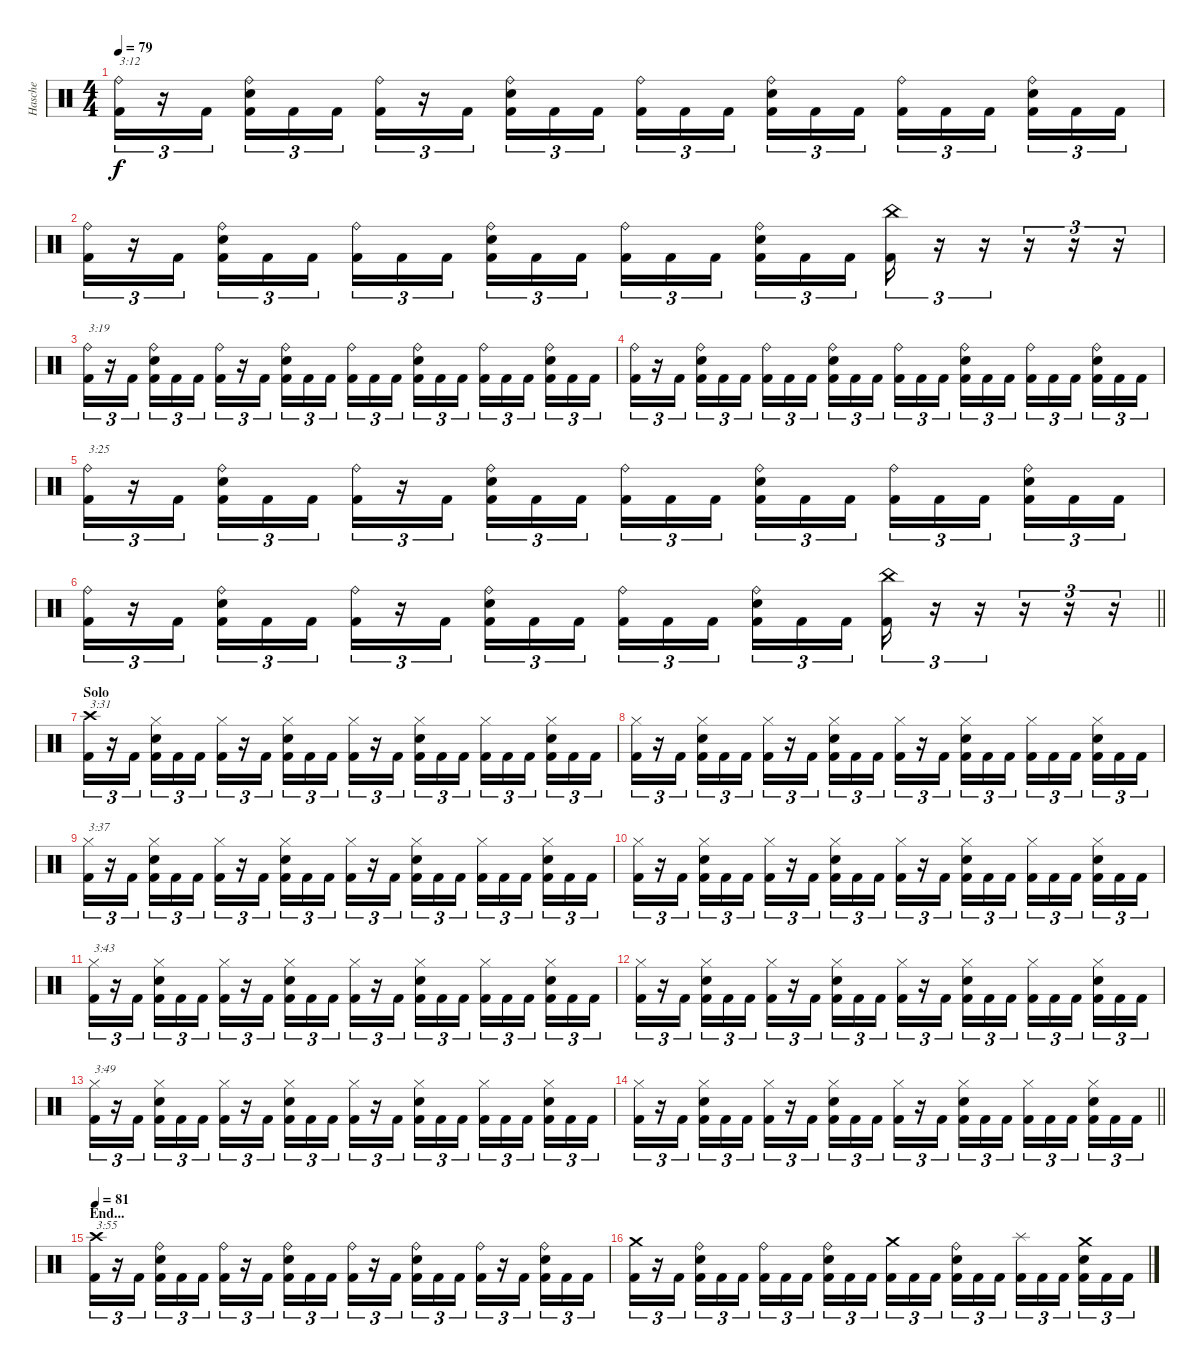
\track ("Hasche" "Hasche") {instrument percussion}
\staff {score}
\articulation defaults
\ts (4 4)
\tempo 79
\clef neutral
\ks c
("Ride (bell)" "Kick (hit) 2").16{tu (3 2) txt "3:12" dy f} r.16{tu (3 2)} "Kick (hit) 2".16{tu (3 2) beam splitsecondary} ("Ride (bell)" "Snare (hit) 2" "Kick (hit) 2").16{tu (3 2)} "Kick (hit) 2".16{tu (3 2)} "Kick (hit) 2".16{tu (3 2)} ("Ride (bell)" "Kick (hit) 2").16{tu (3 2)} r.16{tu (3 2)} "Kick (hit) 2".16{tu (3 2) beam splitsecondary} ("Ride (bell)" "Snare (hit) 2" "Kick (hit) 2").16{tu (3 2)} "Kick (hit) 2".16{tu (3 2)} "Kick (hit) 2".16{tu (3 2)} ("Ride (bell)" "Kick (hit) 2").16{tu (3 2)} "Kick (hit) 2".16{tu (3 2)} "Kick (hit) 2".16{tu (3 2) beam splitsecondary} ("Ride (bell)" "Snare (hit) 2" "Kick (hit) 2").16{tu (3 2)} "Kick (hit) 2".16{tu (3 2)} "Kick (hit) 2".16{tu (3 2)} ("Ride (bell)" "Kick (hit) 2").16{tu (3 2)} "Kick (hit) 2".16{tu (3 2)} "Kick (hit) 2".16{tu (3 2) beam splitsecondary} ("Ride (bell)" "Snare (hit) 2" "Kick (hit) 2").16{tu (3 2)} "Kick (hit) 2".16{tu (3 2)} "Kick (hit) 2".16{tu (3 2)} |
("Ride (bell)" "Kick (hit) 2").16{tu (3 2)} r.16{tu (3 2)} "Kick (hit) 2".16{tu (3 2) beam splitsecondary} ("Ride (bell)" "Snare (hit) 2" "Kick (hit) 2").16{tu (3 2)} "Kick (hit) 2".16{tu (3 2)} "Kick (hit) 2".16{tu (3 2)} ("Ride (bell)" "Kick (hit) 2").16{tu (3 2)} "Kick (hit) 2".16{tu (3 2)} "Kick (hit) 2".16{tu (3 2) beam splitsecondary} ("Ride (bell)" "Snare (hit) 2" "Kick (hit) 2").16{tu (3 2)} "Kick (hit) 2".16{tu (3 2)} "Kick (hit) 2".16{tu (3 2)} ("Ride (bell)" "Kick (hit) 2").16{tu (3 2)} "Kick (hit) 2".16{tu (3 2)} "Kick (hit) 2".16{tu (3 2) beam splitsecondary} ("Ride (bell)" "Snare (hit) 2" "Kick (hit) 2").16{tu (3 2)} "Kick (hit) 2".16{tu (3 2)} "Kick (hit) 2".16{tu (3 2)} ("China (hit)" "Kick (hit) 2").16{tu (3 2)} r.16{tu (3 2)} r.16{tu (3 2)} r.16{tu (3 2)} r.16{tu (3 2)} r.16{tu (3 2)} |
("Ride (bell)" "Kick (hit) 2").16{tu (3 2) txt "3:19"} r.16{tu (3 2)} "Kick (hit) 2".16{tu (3 2) beam splitsecondary} ("Ride (bell)" "Snare (hit) 2" "Kick (hit) 2").16{tu (3 2)} "Kick (hit) 2".16{tu (3 2)} "Kick (hit) 2".16{tu (3 2)} ("Ride (bell)" "Kick (hit) 2").16{tu (3 2)} r.16{tu (3 2)} "Kick (hit) 2".16{tu (3 2) beam splitsecondary} ("Ride (bell)" "Snare (hit) 2" "Kick (hit) 2").16{tu (3 2)} "Kick (hit) 2".16{tu (3 2)} "Kick (hit) 2".16{tu (3 2)} ("Ride (bell)" "Kick (hit) 2").16{tu (3 2)} "Kick (hit) 2".16{tu (3 2)} "Kick (hit) 2".16{tu (3 2) beam splitsecondary} ("Ride (bell)" "Snare (hit) 2" "Kick (hit) 2").16{tu (3 2)} "Kick (hit) 2".16{tu (3 2)} "Kick (hit) 2".16{tu (3 2)} ("Ride (bell)" "Kick (hit) 2").16{tu (3 2)} "Kick (hit) 2".16{tu (3 2)} "Kick (hit) 2".16{tu (3 2) beam splitsecondary} ("Ride (bell)" "Snare (hit) 2" "Kick (hit) 2").16{tu (3 2)} "Kick (hit) 2".16{tu (3 2)} "Kick (hit) 2".16{tu (3 2)} |
("Ride (bell)" "Kick (hit) 2").16{tu (3 2)} r.16{tu (3 2)} "Kick (hit) 2".16{tu (3 2) beam splitsecondary} ("Ride (bell)" "Snare (hit) 2" "Kick (hit) 2").16{tu (3 2)} "Kick (hit) 2".16{tu (3 2)} "Kick (hit) 2".16{tu (3 2)} ("Ride (bell)" "Kick (hit) 2").16{tu (3 2)} "Kick (hit) 2".16{tu (3 2)} "Kick (hit) 2".16{tu (3 2) beam splitsecondary} ("Ride (bell)" "Snare (hit) 2" "Kick (hit) 2").16{tu (3 2)} "Kick (hit) 2".16{tu (3 2)} "Kick (hit) 2".16{tu (3 2)} ("Ride (bell)" "Kick (hit) 2").16{tu (3 2)} "Kick (hit) 2".16{tu (3 2)} "Kick (hit) 2".16{tu (3 2) beam splitsecondary} ("Ride (bell)" "Snare (hit) 2" "Kick (hit) 2").16{tu (3 2)} "Kick (hit) 2".16{tu (3 2)} "Kick (hit) 2".16{tu (3 2)} ("Ride (bell)" "Kick (hit) 2").16{tu (3 2)} "Kick (hit) 2".16{tu (3 2)} "Kick (hit) 2".16{tu (3 2) beam splitsecondary} ("Ride (bell)" "Snare (hit) 2" "Kick (hit) 2").16{tu (3 2)} "Kick (hit) 2".16{tu (3 2)} "Kick (hit) 2".16{tu (3 2)} |
("Ride (bell)" "Kick (hit) 2").16{tu (3 2) txt "3:25"} r.16{tu (3 2)} "Kick (hit) 2".16{tu (3 2) beam splitsecondary} ("Ride (bell)" "Snare (hit) 2" "Kick (hit) 2").16{tu (3 2)} "Kick (hit) 2".16{tu (3 2)} "Kick (hit) 2".16{tu (3 2)} ("Ride (bell)" "Kick (hit) 2").16{tu (3 2)} r.16{tu (3 2)} "Kick (hit) 2".16{tu (3 2) beam splitsecondary} ("Ride (bell)" "Snare (hit) 2" "Kick (hit) 2").16{tu (3 2)} "Kick (hit) 2".16{tu (3 2)} "Kick (hit) 2".16{tu (3 2)} ("Ride (bell)" "Kick (hit) 2").16{tu (3 2)} "Kick (hit) 2".16{tu (3 2)} "Kick (hit) 2".16{tu (3 2) beam splitsecondary} ("Ride (bell)" "Snare (hit) 2" "Kick (hit) 2").16{tu (3 2)} "Kick (hit) 2".16{tu (3 2)} "Kick (hit) 2".16{tu (3 2)} ("Ride (bell)" "Kick (hit) 2").16{tu (3 2)} "Kick (hit) 2".16{tu (3 2)} "Kick (hit) 2".16{tu (3 2) beam splitsecondary} ("Ride (bell)" "Snare (hit) 2" "Kick (hit) 2").16{tu (3 2)} "Kick (hit) 2".16{tu (3 2)} "Kick (hit) 2".16{tu (3 2)} |
\barLineRight lightlight
("Ride (bell)" "Kick (hit) 2").16{tu (3 2)} r.16{tu (3 2)} "Kick (hit) 2".16{tu (3 2) beam splitsecondary} ("Ride (bell)" "Snare (hit) 2" "Kick (hit) 2").16{tu (3 2)} "Kick (hit) 2".16{tu (3 2)} "Kick (hit) 2".16{tu (3 2)} ("Ride (bell)" "Kick (hit) 2").16{tu (3 2)} r.16{tu (3 2)} "Kick (hit) 2".16{tu (3 2) beam splitsecondary} ("Ride (bell)" "Snare (hit) 2" "Kick (hit) 2").16{tu (3 2)} "Kick (hit) 2".16{tu (3 2)} "Kick (hit) 2".16{tu (3 2)} ("Ride (bell)" "Kick (hit) 2").16{tu (3 2)} "Kick (hit) 2".16{tu (3 2)} "Kick (hit) 2".16{tu (3 2) beam splitsecondary} ("Ride (bell)" "Snare (hit) 2" "Kick (hit) 2").16{tu (3 2)} "Kick (hit) 2".16{tu (3 2)} "Kick (hit) 2".16{tu (3 2)} ("China (hit)" "Kick (hit) 2").16{tu (3 2)} r.16{tu (3 2)} r.16{tu (3 2)} r.16{tu (3 2)} r.16{tu (3 2)} r.16{tu (3 2)} |
\section ("" "Solo")
("Crash high (hit)" "Kick (hit) 2").16{tu (3 2) txt "3:31"} r.16{tu (3 2)} "Kick (hit) 2".16{tu (3 2) beam splitsecondary} ("Hi-Hat (closed)" "Snare (hit) 2" "Kick (hit) 2").16{tu (3 2)} "Kick (hit) 2".16{tu (3 2)} "Kick (hit) 2".16{tu (3 2)} ("Hi-Hat (closed)" "Kick (hit) 2").16{tu (3 2)} r.16{tu (3 2)} "Kick (hit) 2".16{tu (3 2) beam splitsecondary} ("Hi-Hat (closed)" "Snare (hit) 2" "Kick (hit) 2").16{tu (3 2)} "Kick (hit) 2".16{tu (3 2)} "Kick (hit) 2".16{tu (3 2)} ("Hi-Hat (closed)" "Kick (hit) 2").16{tu (3 2)} r.16{tu (3 2)} "Kick (hit) 2".16{tu (3 2) beam splitsecondary} ("Hi-Hat (closed)" "Snare (hit) 2" "Kick (hit) 2").16{tu (3 2)} "Kick (hit) 2".16{tu (3 2)} "Kick (hit) 2".16{tu (3 2)} ("Hi-Hat (closed)" "Kick (hit) 2").16{tu (3 2)} "Kick (hit) 2".16{tu (3 2)} "Kick (hit) 2".16{tu (3 2) beam splitsecondary} ("Hi-Hat (closed)" "Snare (hit) 2" "Kick (hit) 2").16{tu (3 2)} "Kick (hit) 2".16{tu (3 2)} "Kick (hit) 2".16{tu (3 2)} |
("Hi-Hat (closed)" "Kick (hit) 2").16{tu (3 2)} r.16{tu (3 2)} "Kick (hit) 2".16{tu (3 2) beam splitsecondary} ("Hi-Hat (closed)" "Snare (hit) 2" "Kick (hit) 2").16{tu (3 2)} "Kick (hit) 2".16{tu (3 2)} "Kick (hit) 2".16{tu (3 2)} ("Hi-Hat (closed)" "Kick (hit) 2").16{tu (3 2)} r.16{tu (3 2)} "Kick (hit) 2".16{tu (3 2) beam splitsecondary} ("Hi-Hat (closed)" "Snare (hit) 2" "Kick (hit) 2").16{tu (3 2)} "Kick (hit) 2".16{tu (3 2)} "Kick (hit) 2".16{tu (3 2)} ("Hi-Hat (closed)" "Kick (hit) 2").16{tu (3 2)} r.16{tu (3 2)} "Kick (hit) 2".16{tu (3 2) beam splitsecondary} ("Hi-Hat (closed)" "Snare (hit) 2" "Kick (hit) 2").16{tu (3 2)} "Kick (hit) 2".16{tu (3 2)} "Kick (hit) 2".16{tu (3 2)} ("Hi-Hat (closed)" "Kick (hit) 2").16{tu (3 2)} "Kick (hit) 2".16{tu (3 2)} "Kick (hit) 2".16{tu (3 2) beam splitsecondary} ("Hi-Hat (closed)" "Snare (hit) 2" "Kick (hit) 2").16{tu (3 2)} "Kick (hit) 2".16{tu (3 2)} "Kick (hit) 2".16{tu (3 2)} |
("Hi-Hat (closed)" "Kick (hit) 2").16{tu (3 2) txt "3:37"} r.16{tu (3 2)} "Kick (hit) 2".16{tu (3 2) beam splitsecondary} ("Hi-Hat (closed)" "Snare (hit) 2" "Kick (hit) 2").16{tu (3 2)} "Kick (hit) 2".16{tu (3 2)} "Kick (hit) 2".16{tu (3 2)} ("Hi-Hat (closed)" "Kick (hit) 2").16{tu (3 2)} r.16{tu (3 2)} "Kick (hit) 2".16{tu (3 2) beam splitsecondary} ("Hi-Hat (closed)" "Snare (hit) 2" "Kick (hit) 2").16{tu (3 2)} "Kick (hit) 2".16{tu (3 2)} "Kick (hit) 2".16{tu (3 2)} ("Hi-Hat (closed)" "Kick (hit) 2").16{tu (3 2)} r.16{tu (3 2)} "Kick (hit) 2".16{tu (3 2) beam splitsecondary} ("Hi-Hat (closed)" "Snare (hit) 2" "Kick (hit) 2").16{tu (3 2)} "Kick (hit) 2".16{tu (3 2)} "Kick (hit) 2".16{tu (3 2)} ("Hi-Hat (closed)" "Kick (hit) 2").16{tu (3 2)} "Kick (hit) 2".16{tu (3 2)} "Kick (hit) 2".16{tu (3 2) beam splitsecondary} ("Hi-Hat (closed)" "Snare (hit) 2" "Kick (hit) 2").16{tu (3 2)} "Kick (hit) 2".16{tu (3 2)} "Kick (hit) 2".16{tu (3 2)} |
("Hi-Hat (closed)" "Kick (hit) 2").16{tu (3 2)} r.16{tu (3 2)} "Kick (hit) 2".16{tu (3 2) beam splitsecondary} ("Hi-Hat (closed)" "Snare (hit) 2" "Kick (hit) 2").16{tu (3 2)} "Kick (hit) 2".16{tu (3 2)} "Kick (hit) 2".16{tu (3 2)} ("Hi-Hat (closed)" "Kick (hit) 2").16{tu (3 2)} r.16{tu (3 2)} "Kick (hit) 2".16{tu (3 2) beam splitsecondary} ("Hi-Hat (closed)" "Snare (hit) 2" "Kick (hit) 2").16{tu (3 2)} "Kick (hit) 2".16{tu (3 2)} "Kick (hit) 2".16{tu (3 2)} ("Hi-Hat (closed)" "Kick (hit) 2").16{tu (3 2)} r.16{tu (3 2)} "Kick (hit) 2".16{tu (3 2) beam splitsecondary} ("Hi-Hat (closed)" "Snare (hit) 2" "Kick (hit) 2").16{tu (3 2)} "Kick (hit) 2".16{tu (3 2)} "Kick (hit) 2".16{tu (3 2)} ("Hi-Hat (closed)" "Kick (hit) 2").16{tu (3 2)} "Kick (hit) 2".16{tu (3 2)} "Kick (hit) 2".16{tu (3 2) beam splitsecondary} ("Hi-Hat (closed)" "Snare (hit) 2" "Kick (hit) 2").16{tu (3 2)} "Kick (hit) 2".16{tu (3 2)} "Kick (hit) 2".16{tu (3 2)} |
("Hi-Hat (closed)" "Kick (hit) 2").16{tu (3 2) txt "3:43"} r.16{tu (3 2)} "Kick (hit) 2".16{tu (3 2) beam splitsecondary} ("Hi-Hat (closed)" "Snare (hit) 2" "Kick (hit) 2").16{tu (3 2)} "Kick (hit) 2".16{tu (3 2)} "Kick (hit) 2".16{tu (3 2)} ("Hi-Hat (closed)" "Kick (hit) 2").16{tu (3 2)} r.16{tu (3 2)} "Kick (hit) 2".16{tu (3 2) beam splitsecondary} ("Hi-Hat (closed)" "Snare (hit) 2" "Kick (hit) 2").16{tu (3 2)} "Kick (hit) 2".16{tu (3 2)} "Kick (hit) 2".16{tu (3 2)} ("Hi-Hat (closed)" "Kick (hit) 2").16{tu (3 2)} r.16{tu (3 2)} "Kick (hit) 2".16{tu (3 2) beam splitsecondary} ("Hi-Hat (closed)" "Snare (hit) 2" "Kick (hit) 2").16{tu (3 2)} "Kick (hit) 2".16{tu (3 2)} "Kick (hit) 2".16{tu (3 2)} ("Hi-Hat (closed)" "Kick (hit) 2").16{tu (3 2)} "Kick (hit) 2".16{tu (3 2)} "Kick (hit) 2".16{tu (3 2) beam splitsecondary} ("Hi-Hat (closed)" "Snare (hit) 2" "Kick (hit) 2").16{tu (3 2)} "Kick (hit) 2".16{tu (3 2)} "Kick (hit) 2".16{tu (3 2)} |
("Hi-Hat (closed)" "Kick (hit) 2").16{tu (3 2)} r.16{tu (3 2)} "Kick (hit) 2".16{tu (3 2) beam splitsecondary} ("Hi-Hat (closed)" "Snare (hit) 2" "Kick (hit) 2").16{tu (3 2)} "Kick (hit) 2".16{tu (3 2)} "Kick (hit) 2".16{tu (3 2)} ("Hi-Hat (closed)" "Kick (hit) 2").16{tu (3 2)} r.16{tu (3 2)} "Kick (hit) 2".16{tu (3 2) beam splitsecondary} ("Hi-Hat (closed)" "Snare (hit) 2" "Kick (hit) 2").16{tu (3 2)} "Kick (hit) 2".16{tu (3 2)} "Kick (hit) 2".16{tu (3 2)} ("Hi-Hat (closed)" "Kick (hit) 2").16{tu (3 2)} r.16{tu (3 2)} "Kick (hit) 2".16{tu (3 2) beam splitsecondary} ("Hi-Hat (closed)" "Snare (hit) 2" "Kick (hit) 2").16{tu (3 2)} "Kick (hit) 2".16{tu (3 2)} "Kick (hit) 2".16{tu (3 2)} ("Hi-Hat (closed)" "Kick (hit) 2").16{tu (3 2)} "Kick (hit) 2".16{tu (3 2)} "Kick (hit) 2".16{tu (3 2) beam splitsecondary} ("Hi-Hat (closed)" "Snare (hit) 2" "Kick (hit) 2").16{tu (3 2)} "Kick (hit) 2".16{tu (3 2)} "Kick (hit) 2".16{tu (3 2)} |
("Hi-Hat (closed)" "Kick (hit) 2").16{tu (3 2) txt "3:49"} r.16{tu (3 2)} "Kick (hit) 2".16{tu (3 2) beam splitsecondary} ("Hi-Hat (closed)" "Snare (hit) 2" "Kick (hit) 2").16{tu (3 2)} "Kick (hit) 2".16{tu (3 2)} "Kick (hit) 2".16{tu (3 2)} ("Hi-Hat (closed)" "Kick (hit) 2").16{tu (3 2)} r.16{tu (3 2)} "Kick (hit) 2".16{tu (3 2) beam splitsecondary} ("Hi-Hat (closed)" "Snare (hit) 2" "Kick (hit) 2").16{tu (3 2)} "Kick (hit) 2".16{tu (3 2)} "Kick (hit) 2".16{tu (3 2)} ("Hi-Hat (closed)" "Kick (hit) 2").16{tu (3 2)} r.16{tu (3 2)} "Kick (hit) 2".16{tu (3 2) beam splitsecondary} ("Hi-Hat (closed)" "Snare (hit) 2" "Kick (hit) 2").16{tu (3 2)} "Kick (hit) 2".16{tu (3 2)} "Kick (hit) 2".16{tu (3 2)} ("Hi-Hat (closed)" "Kick (hit) 2").16{tu (3 2)} "Kick (hit) 2".16{tu (3 2)} "Kick (hit) 2".16{tu (3 2) beam splitsecondary} ("Hi-Hat (closed)" "Snare (hit) 2" "Kick (hit) 2").16{tu (3 2)} "Kick (hit) 2".16{tu (3 2)} "Kick (hit) 2".16{tu (3 2)} |
\barLineRight lightlight
("Hi-Hat (closed)" "Kick (hit) 2").16{tu (3 2)} r.16{tu (3 2)} "Kick (hit) 2".16{tu (3 2) beam splitsecondary} ("Hi-Hat (closed)" "Snare (hit) 2" "Kick (hit) 2").16{tu (3 2)} "Kick (hit) 2".16{tu (3 2)} "Kick (hit) 2".16{tu (3 2)} ("Hi-Hat (closed)" "Kick (hit) 2").16{tu (3 2)} r.16{tu (3 2)} "Kick (hit) 2".16{tu (3 2) beam splitsecondary} ("Hi-Hat (closed)" "Snare (hit) 2" "Kick (hit) 2").16{tu (3 2)} "Kick (hit) 2".16{tu (3 2)} "Kick (hit) 2".16{tu (3 2)} ("Hi-Hat (closed)" "Kick (hit) 2").16{tu (3 2)} r.16{tu (3 2)} "Kick (hit) 2".16{tu (3 2) beam splitsecondary} ("Hi-Hat (closed)" "Snare (hit) 2" "Kick (hit) 2").16{tu (3 2)} "Kick (hit) 2".16{tu (3 2)} "Kick (hit) 2".16{tu (3 2)} ("Hi-Hat (closed)" "Kick (hit) 2").16{tu (3 2)} "Kick (hit) 2".16{tu (3 2)} "Kick (hit) 2".16{tu (3 2) beam splitsecondary} ("Hi-Hat (closed)" "Snare (hit) 2" "Kick (hit) 2").16{tu (3 2)} "Kick (hit) 2".16{tu (3 2)} "Kick (hit) 2".16{tu (3 2)} |
\section ("" "End...")
\tempo 81
("Crash high (hit)" "Kick (hit) 2").16{tu (3 2) txt "3:55"} r.16{tu (3 2)} "Kick (hit) 2".16{tu (3 2) beam splitsecondary} ("Ride (bell)" "Snare (hit) 2" "Kick (hit) 2").16{tu (3 2)} "Kick (hit) 2".16{tu (3 2)} "Kick (hit) 2".16{tu (3 2)} ("Ride (bell)" "Kick (hit) 2").16{tu (3 2)} r.16{tu (3 2)} "Kick (hit) 2".16{tu (3 2) beam splitsecondary} ("Ride (bell)" "Snare (hit) 2" "Kick (hit) 2").16{tu (3 2)} "Kick (hit) 2".16{tu (3 2)} "Kick (hit) 2".16{tu (3 2)} ("Ride (bell)" "Kick (hit) 2").16{tu (3 2)} r.16{tu (3 2)} "Kick (hit) 2".16{tu (3 2) beam splitsecondary} ("Ride (bell)" "Snare (hit) 2" "Kick (hit) 2").16{tu (3 2)} "Kick (hit) 2".16{tu (3 2)} "Kick (hit) 2".16{tu (3 2)} ("Ride (bell)" "Kick (hit) 2").16{tu (3 2)} r.16{tu (3 2)} "Kick (hit) 2".16{tu (3 2) beam splitsecondary} ("Ride (bell)" "Snare (hit) 2" "Kick (hit) 2").16{tu (3 2)} "Kick (hit) 2".16{tu (3 2)} "Kick (hit) 2".16{tu (3 2)} |
("Crash medium (hit)" "Kick (hit) 2").16{tu (3 2)} r.16{tu (3 2)} "Kick (hit) 2".16{tu (3 2) beam splitsecondary} ("Ride (bell)" "Snare (hit) 2" "Kick (hit) 2").16{tu (3 2)} "Kick (hit) 2".16{tu (3 2)} "Kick (hit) 2".16{tu (3 2)} ("Ride (bell)" "Kick (hit) 2").16{tu (3 2)} "Kick (hit) 2".16{tu (3 2)} "Kick (hit) 2".16{tu (3 2) beam splitsecondary} ("Ride (bell)" "Snare (hit) 2" "Kick (hit) 2").16{tu (3 2)} "Kick (hit) 2".16{tu (3 2)} "Kick (hit) 2".16{tu (3 2)} ("Crash medium (hit)" "Kick (hit) 2").16{tu (3 2)} "Kick (hit) 2".16{tu (3 2)} "Kick (hit) 2".16{tu (3 2) beam splitsecondary} ("Ride (bell)" "Snare (hit) 2" "Kick (hit) 2").16{tu (3 2)} "Kick (hit) 2".16{tu (3 2)} "Kick (hit) 2".16{tu (3 2)} ("Splash (hit)" "Kick (hit) 2").16{tu (3 2)} "Kick (hit) 2".16{tu (3 2)} "Kick (hit) 2".16{tu (3 2) beam splitsecondary} ("Crash medium (hit)" "Snare (hit) 2" "Kick (hit) 2").16{tu (3 2)} "Kick (hit) 2".16{tu (3 2)} "Kick (hit) 2".16{tu (3 2)}
